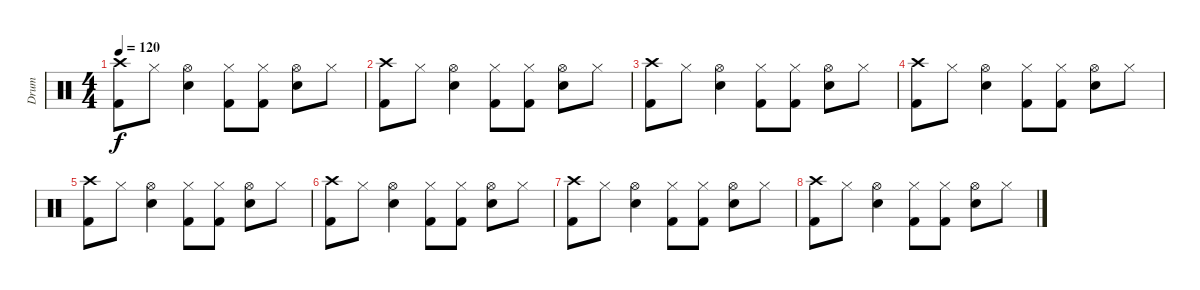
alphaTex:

\track ("Drum" "Drum") {instrument percussion}
\staff {score}
\articulation defaults
\ts (4 4)
\tempo 120
\clef neutral
\ks c
("Crash high (hit)" "Kick (hit) 2").8{dy f} "Hi-Hat (closed)".8 ("Electric Snare (hit)" "Hi-Hat (open)").4 ("Hi-Hat (closed)" "Kick (hit) 2").8 ("Hi-Hat (closed)" "Kick (hit) 2").8 ("Hi-Hat (open)" "Electric Snare (hit)").8 "Hi-Hat (closed)".8 |
("Crash high (hit)" "Kick (hit) 2").8 "Hi-Hat (closed)".8 ("Electric Snare (hit)" "Hi-Hat (open)").4 ("Hi-Hat (closed)" "Kick (hit) 2").8 ("Hi-Hat (closed)" "Kick (hit) 2").8 ("Hi-Hat (open)" "Electric Snare (hit)").8 "Hi-Hat (closed)".8 |
("Crash high (hit)" "Kick (hit) 2").8 "Hi-Hat (closed)".8 ("Electric Snare (hit)" "Hi-Hat (open)").4 ("Hi-Hat (closed)" "Kick (hit) 2").8 ("Hi-Hat (closed)" "Kick (hit) 2").8 ("Hi-Hat (open)" "Electric Snare (hit)").8 "Hi-Hat (closed)".8 |
("Crash high (hit)" "Kick (hit) 2").8 "Hi-Hat (closed)".8 ("Electric Snare (hit)" "Hi-Hat (open)").4 ("Hi-Hat (closed)" "Kick (hit) 2").8 ("Hi-Hat (closed)" "Kick (hit) 2").8 ("Hi-Hat (open)" "Electric Snare (hit)").8 "Hi-Hat (closed)".8 |
("Crash high (hit)" "Kick (hit) 2").8 "Hi-Hat (closed)".8 ("Electric Snare (hit)" "Hi-Hat (open)").4 ("Hi-Hat (closed)" "Kick (hit) 2").8 ("Hi-Hat (closed)" "Kick (hit) 2").8 ("Hi-Hat (open)" "Electric Snare (hit)").8 "Hi-Hat (closed)".8 |
("Crash high (hit)" "Kick (hit) 2").8 "Hi-Hat (closed)".8 ("Electric Snare (hit)" "Hi-Hat (open)").4 ("Hi-Hat (closed)" "Kick (hit) 2").8 ("Hi-Hat (closed)" "Kick (hit) 2").8 ("Hi-Hat (open)" "Electric Snare (hit)").8 "Hi-Hat (closed)".8 |
("Crash high (hit)" "Kick (hit) 2").8 "Hi-Hat (closed)".8 ("Electric Snare (hit)" "Hi-Hat (open)").4 ("Hi-Hat (closed)" "Kick (hit) 2").8 ("Hi-Hat (closed)" "Kick (hit) 2").8 ("Hi-Hat (open)" "Electric Snare (hit)").8 "Hi-Hat (closed)".8 |
("Crash high (hit)" "Kick (hit) 2").8 "Hi-Hat (closed)".8 ("Electric Snare (hit)" "Hi-Hat (open)").4 ("Hi-Hat (closed)" "Kick (hit) 2").8 ("Hi-Hat (closed)" "Kick (hit) 2").8 ("Hi-Hat (open)" "Electric Snare (hit)").8 "Hi-Hat (closed)".8
